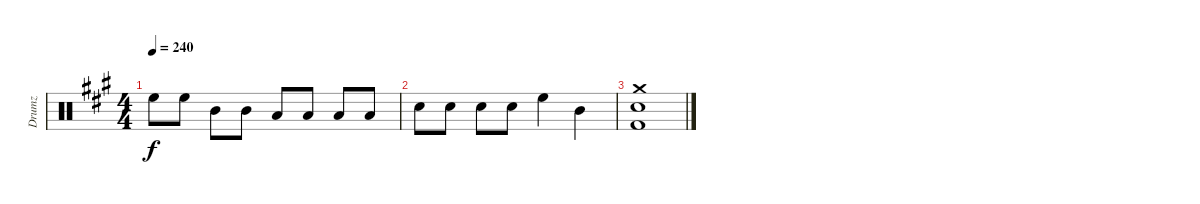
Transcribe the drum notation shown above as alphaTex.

\track ("Drumz" "Drumz") {instrument percussion}
\staff {score}
\articulation defaults
\ts (4 4)
\tempo 240
\clef neutral
\ks a "High Floor Tom (hit)".8{dy f} "High Floor Tom (hit)".8 "Mid Tom (hit)".8 "Mid Tom (hit)".8 "Low Tom (hit)".8 "Low Tom (hit)".8 "Low Floor Tom (hit)".8 "Low Floor Tom (hit)".8
|
"Electric Snare (hit)".8 "Electric Snare (hit)".8 "Electric Snare (hit)".8 "Electric Snare (hit)".8 "High Floor Tom (hit)".4 "Mid Tom (hit)".4 |
("Crash medium (hit)" "Electric Snare (hit)" "Kick (hit) 2").1
